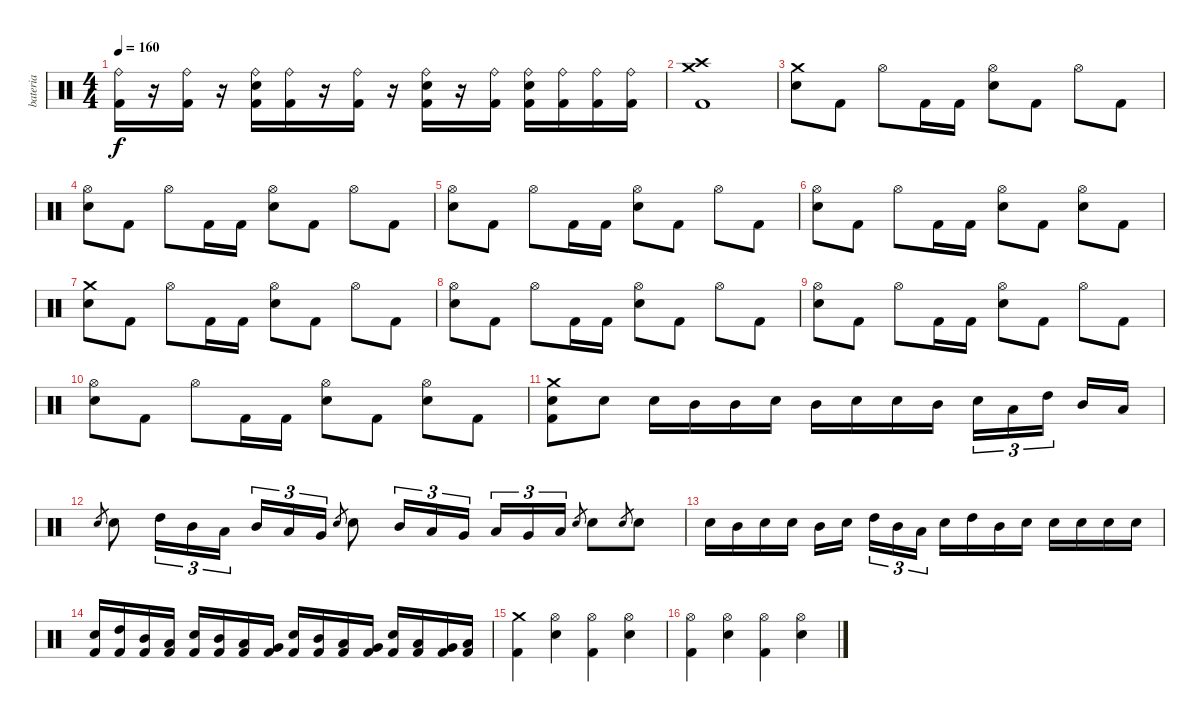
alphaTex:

\track ("bateria" "bateria") {instrument percussion}
\staff {score}
\articulation defaults
\ts (4 4)
\tempo 160
\clef neutral
\ks c
("Ride (bell)" "Kick (hit) 2").16{dy f} r.16 ("Ride (bell)" "Kick (hit) 2").16 r.16 ("Ride (bell)" "Electric Snare (hit)" "Kick (hit) 2").16 ("Ride (bell)" "Kick (hit) 2").16 r.16 ("Ride (bell)" "Kick (hit) 2").16 r.16 ("Ride (bell)" "Electric Snare (hit)" "Kick (hit) 2").16 r.16 ("Ride (bell)" "Kick (hit) 2").16 ("Ride (bell)" "Electric Snare (hit)" "Kick (hit) 2").16 ("Ride (bell)" "Kick (hit) 2").16 ("Ride (bell)" "Kick (hit) 2").16 ("Ride (bell)" "Kick (hit) 2").16 |
("Crash medium (hit)" "Crash high (hit)" "Kick (hit) 2").1 |
("Crash medium (hit)" "Electric Snare (hit)").8 "Kick (hit) 2".8 "Hi-Hat (open)".8 "Kick (hit) 2".16 "Kick (hit) 2".16 ("Hi-Hat (open)" "Electric Snare (hit)").8 "Kick (hit) 2".8 "Hi-Hat (open)".8 "Kick (hit) 2".8 |
("Hi-Hat (open)" "Electric Snare (hit)").8 "Kick (hit) 2".8 "Hi-Hat (open)".8 "Kick (hit) 2".16 "Kick (hit) 2".16 ("Hi-Hat (open)" "Electric Snare (hit)").8 "Kick (hit) 2".8 "Hi-Hat (open)".8 "Kick (hit) 2".8 |
("Hi-Hat (open)" "Electric Snare (hit)").8 "Kick (hit) 2".8 "Hi-Hat (open)".8 "Kick (hit) 2".16 "Kick (hit) 2".16 ("Hi-Hat (open)" "Electric Snare (hit)").8 "Kick (hit) 2".8 "Hi-Hat (open)".8 "Kick (hit) 2".8 |
("Hi-Hat (open)" "Electric Snare (hit)").8 "Kick (hit) 2".8 "Hi-Hat (open)".8 "Kick (hit) 2".16 "Kick (hit) 2".16 ("Hi-Hat (open)" "Electric Snare (hit)").8 "Kick (hit) 2".8 ("Hi-Hat (open)" "Electric Snare (hit)").8 "Kick (hit) 2".8 |
("Crash medium (hit)" "Electric Snare (hit)").8 "Kick (hit) 2".8 "Hi-Hat (open)".8 "Kick (hit) 2".16 "Kick (hit) 2".16 ("Hi-Hat (open)" "Electric Snare (hit)").8 "Kick (hit) 2".8 "Hi-Hat (open)".8 "Kick (hit) 2".8 |
("Hi-Hat (open)" "Electric Snare (hit)").8 "Kick (hit) 2".8 "Hi-Hat (open)".8 "Kick (hit) 2".16 "Kick (hit) 2".16 ("Hi-Hat (open)" "Electric Snare (hit)").8 "Kick (hit) 2".8 "Hi-Hat (open)".8 "Kick (hit) 2".8 |
("Hi-Hat (open)" "Electric Snare (hit)").8 "Kick (hit) 2".8 "Hi-Hat (open)".8 "Kick (hit) 2".16 "Kick (hit) 2".16 ("Hi-Hat (open)" "Electric Snare (hit)").8 "Kick (hit) 2".8 "Hi-Hat (open)".8 "Kick (hit) 2".8 |
("Hi-Hat (open)" "Electric Snare (hit)").8 "Kick (hit) 2".8 "Hi-Hat (open)".8 "Kick (hit) 2".16 "Kick (hit) 2".16 ("Hi-Hat (open)" "Electric Snare (hit)").8 "Kick (hit) 2".8 ("Hi-Hat (open)" "Electric Snare (hit)").8 "Kick (hit) 2".8 |
("Crash medium (hit)" "Electric Snare (hit)" "Kick (hit) 2").8 "Electric Snare (hit)".8 "Electric Snare (hit)".16 "Mid Tom (hit)".16 "Mid Tom (hit)".16 "Electric Snare (hit)".16 "Mid Tom (hit)".16 "Electric Snare (hit)".16 "Electric Snare (hit)".16 "Mid Tom (hit)".16 "Electric Snare (hit)".16{tu (3 2)} "Low Tom (hit)".16{tu (3 2)} "High Tom (hit)".16{tu (3 2)} "Mid Tom (hit)".16 "Low Tom (hit)".16 |
"Electric Snare (hit)".8{gr} "Electric Snare (hit)".8 "High Tom (hit)".16{tu (3 2)} "Mid Tom (hit)".16{tu (3 2)} "Low Tom (hit)".16{tu (3 2)} "Mid Tom (hit)".16{tu (3 2)} "Low Tom (hit)".16{tu (3 2)} "Very Low Tom (hit)".16{tu (3 2)} "Electric Snare (hit)".8{gr} "Electric Snare (hit)".8 "Mid Tom (hit)".16{tu (3 2)} "Low Tom (hit)".16{tu (3 2)} "Very Low Tom (hit)".16{tu (3 2)} "Low Tom (hit)".16{tu (3 2)} "Very Low Tom (hit)".16{tu (3 2)} "Low Floor Tom (hit)".16{tu (3 2)} "Electric Snare (hit)".8{gr} "Electric Snare (hit)".8 "Electric Snare (hit)".8{gr} "Electric Snare (hit)".8 |
"Electric Snare (hit)".16 "Mid Tom (hit)".16 "Electric Snare (hit)".16 "Electric Snare (hit)".16 "Mid Tom (hit)".16 "Electric Snare (hit)".16 "High Tom (hit)".16{tu (3 2)} "Mid Tom (hit)".16{tu (3 2)} "Low Tom (hit)".16{tu (3 2)} "Electric Snare (hit)".16 "High Tom (hit)".16 "Mid Tom (hit)".16 "Electric Snare (hit)".16 "Electric Snare (hit)".16 "Electric Snare (hit)".16 "Electric Snare (hit)".16 "Electric Snare (hit)".16 |
("Electric Snare (hit)" "Kick (hit) 2").16 ("High Tom (hit)" "Kick (hit) 2").16 ("Mid Tom (hit)" "Kick (hit) 2").16 ("Low Tom (hit)" "Kick (hit) 2").16 ("Electric Snare (hit)" "Kick (hit) 2").16 ("Mid Tom (hit)" "Kick (hit) 2").16 ("Low Tom (hit)" "Kick (hit) 2").16 ("Very Low Tom (hit)" "Kick (hit) 2").16 ("Electric Snare (hit)" "Kick (hit) 2").16 ("Mid Tom (hit)" "Kick (hit) 2").16 ("Low Tom (hit)" "Kick (hit) 2").16 ("Very Low Tom (hit)" "Kick (hit) 2").16 ("Electric Snare (hit)" "Kick (hit) 2").16 ("Low Tom (hit)" "Kick (hit) 2").16 ("Very Low Tom (hit)" "Kick (hit) 2").16 ("Low Floor Tom (hit)" "Kick (hit) 2").16 |
("Crash medium (hit)" "Kick (hit) 2").4 ("Hi-Hat (open)" "Electric Snare (hit)").4 ("Hi-Hat (open)" "Kick (hit) 2").4 ("Hi-Hat (open)" "Electric Snare (hit)").4 |
("Hi-Hat (open)" "Kick (hit) 2").4 ("Hi-Hat (open)" "Electric Snare (hit)").4 ("Hi-Hat (open)" "Kick (hit) 2").4 ("Hi-Hat (open)" "Electric Snare (hit)").4
